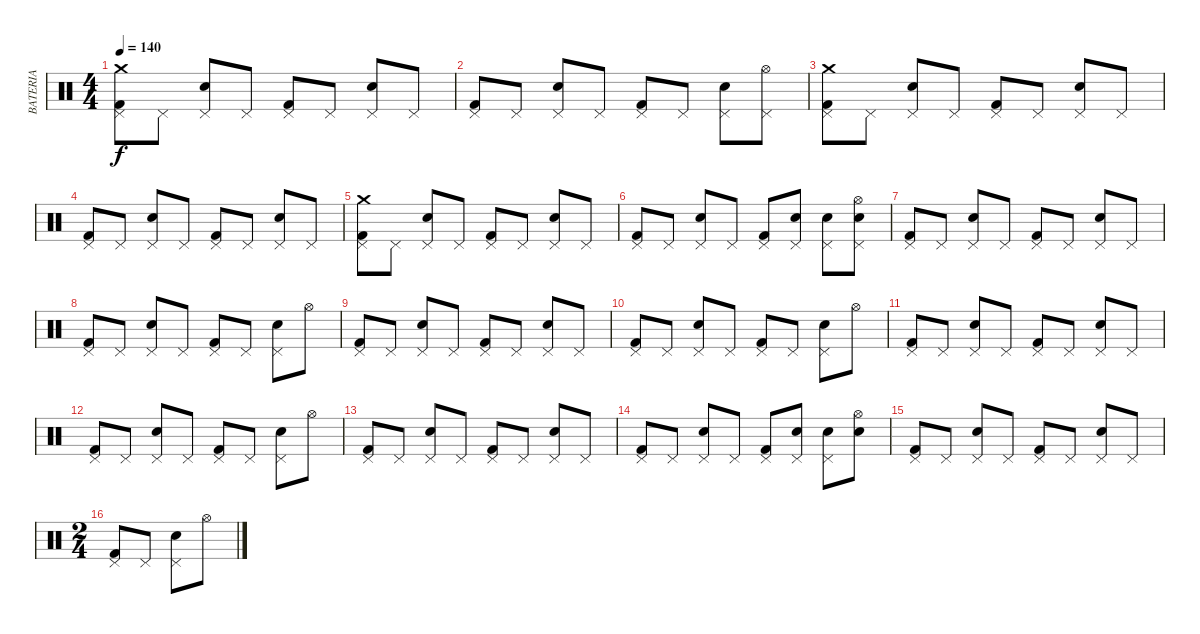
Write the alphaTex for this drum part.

\track ("BATERIA" "BATERIA") {instrument percussion}
\staff {score}
\articulation defaults
\ts (4 4)
\tempo 140
\clef neutral
\ks c
("Kick (hit) 2" "Pedal Hi-Hat (hit)" "Crash medium (hit)").8{dy f} "Pedal Hi-Hat (hit)".8 ("Snare (hit) 2" "Pedal Hi-Hat (hit)").8 "Pedal Hi-Hat (hit)".8 ("Kick (hit) 2" "Pedal Hi-Hat (hit)").8 "Pedal Hi-Hat (hit)".8 ("Snare (hit) 2" "Pedal Hi-Hat (hit)").8 "Pedal Hi-Hat (hit)".8 |
("Kick (hit) 2" "Pedal Hi-Hat (hit)").8 "Pedal Hi-Hat (hit)".8 ("Snare (hit) 2" "Pedal Hi-Hat (hit)").8 "Pedal Hi-Hat (hit)".8 ("Kick (hit) 2" "Pedal Hi-Hat (hit)").8 "Pedal Hi-Hat (hit)".8 ("Snare (hit) 2" "Pedal Hi-Hat (hit)").8 ("Pedal Hi-Hat (hit)" "Hi-Hat (open)").8 |
("Kick (hit) 2" "Pedal Hi-Hat (hit)" "Crash medium (hit)").8 "Pedal Hi-Hat (hit)".8 ("Snare (hit) 2" "Pedal Hi-Hat (hit)").8 "Pedal Hi-Hat (hit)".8 ("Kick (hit) 2" "Pedal Hi-Hat (hit)").8 "Pedal Hi-Hat (hit)".8 ("Snare (hit) 2" "Pedal Hi-Hat (hit)").8 "Pedal Hi-Hat (hit)".8 |
("Kick (hit) 2" "Pedal Hi-Hat (hit)").8 "Pedal Hi-Hat (hit)".8 ("Snare (hit) 2" "Pedal Hi-Hat (hit)").8 "Pedal Hi-Hat (hit)".8 ("Kick (hit) 2" "Pedal Hi-Hat (hit)").8 "Pedal Hi-Hat (hit)".8 ("Snare (hit) 2" "Pedal Hi-Hat (hit)").8 "Pedal Hi-Hat (hit)".8 |
("Kick (hit) 2" "Pedal Hi-Hat (hit)" "Crash medium (hit)").8 "Pedal Hi-Hat (hit)".8 ("Snare (hit) 2" "Pedal Hi-Hat (hit)").8 "Pedal Hi-Hat (hit)".8 ("Kick (hit) 2" "Pedal Hi-Hat (hit)").8 "Pedal Hi-Hat (hit)".8 ("Snare (hit) 2" "Pedal Hi-Hat (hit)").8 "Pedal Hi-Hat (hit)".8 |
("Kick (hit) 2" "Pedal Hi-Hat (hit)").8 "Pedal Hi-Hat (hit)".8 ("Snare (hit) 2" "Pedal Hi-Hat (hit)").8 "Pedal Hi-Hat (hit)".8 ("Kick (hit) 2" "Pedal Hi-Hat (hit)").8 ("Snare (hit) 2" "Pedal Hi-Hat (hit)").8 ("Snare (hit) 2" "Pedal Hi-Hat (hit)").8 ("Snare (hit) 2" "Pedal Hi-Hat (hit)" "Hi-Hat (open)").8 |
("Kick (hit) 2" "Pedal Hi-Hat (hit)").8 "Pedal Hi-Hat (hit)".8 ("Snare (hit) 2" "Pedal Hi-Hat (hit)").8 "Pedal Hi-Hat (hit)".8 ("Kick (hit) 2" "Pedal Hi-Hat (hit)").8 "Pedal Hi-Hat (hit)".8 ("Snare (hit) 2" "Pedal Hi-Hat (hit)").8 "Pedal Hi-Hat (hit)".8 |
("Kick (hit) 2" "Pedal Hi-Hat (hit)").8 "Pedal Hi-Hat (hit)".8 ("Snare (hit) 2" "Pedal Hi-Hat (hit)").8 "Pedal Hi-Hat (hit)".8 ("Kick (hit) 2" "Pedal Hi-Hat (hit)").8 "Pedal Hi-Hat (hit)".8 ("Snare (hit) 2" "Pedal Hi-Hat (hit)").8 "Hi-Hat (open)".8 |
("Kick (hit) 2" "Pedal Hi-Hat (hit)").8 "Pedal Hi-Hat (hit)".8 ("Snare (hit) 2" "Pedal Hi-Hat (hit)").8 "Pedal Hi-Hat (hit)".8 ("Kick (hit) 2" "Pedal Hi-Hat (hit)").8 "Pedal Hi-Hat (hit)".8 ("Snare (hit) 2" "Pedal Hi-Hat (hit)").8 "Pedal Hi-Hat (hit)".8 |
("Kick (hit) 2" "Pedal Hi-Hat (hit)").8 "Pedal Hi-Hat (hit)".8 ("Snare (hit) 2" "Pedal Hi-Hat (hit)").8 "Pedal Hi-Hat (hit)".8 ("Kick (hit) 2" "Pedal Hi-Hat (hit)").8 "Pedal Hi-Hat (hit)".8 ("Snare (hit) 2" "Pedal Hi-Hat (hit)").8 "Hi-Hat (open)".8 |
("Kick (hit) 2" "Pedal Hi-Hat (hit)").8 "Pedal Hi-Hat (hit)".8 ("Snare (hit) 2" "Pedal Hi-Hat (hit)").8 "Pedal Hi-Hat (hit)".8 ("Kick (hit) 2" "Pedal Hi-Hat (hit)").8 "Pedal Hi-Hat (hit)".8 ("Snare (hit) 2" "Pedal Hi-Hat (hit)").8 "Pedal Hi-Hat (hit)".8 |
("Kick (hit) 2" "Pedal Hi-Hat (hit)").8 "Pedal Hi-Hat (hit)".8 ("Snare (hit) 2" "Pedal Hi-Hat (hit)").8 "Pedal Hi-Hat (hit)".8 ("Kick (hit) 2" "Pedal Hi-Hat (hit)").8 "Pedal Hi-Hat (hit)".8 ("Snare (hit) 2" "Pedal Hi-Hat (hit)").8 "Hi-Hat (open)".8 |
("Kick (hit) 2" "Pedal Hi-Hat (hit)").8 "Pedal Hi-Hat (hit)".8 ("Snare (hit) 2" "Pedal Hi-Hat (hit)").8 "Pedal Hi-Hat (hit)".8 ("Kick (hit) 2" "Pedal Hi-Hat (hit)").8 "Pedal Hi-Hat (hit)".8 ("Snare (hit) 2" "Pedal Hi-Hat (hit)").8 "Pedal Hi-Hat (hit)".8 |
("Kick (hit) 2" "Pedal Hi-Hat (hit)").8 "Pedal Hi-Hat (hit)".8 ("Snare (hit) 2" "Pedal Hi-Hat (hit)").8 "Pedal Hi-Hat (hit)".8 ("Kick (hit) 2" "Pedal Hi-Hat (hit)").8 ("Snare (hit) 2" "Pedal Hi-Hat (hit)").8 ("Snare (hit) 2" "Pedal Hi-Hat (hit)").8 ("Snare (hit) 2" "Hi-Hat (open)").8 |
("Kick (hit) 2" "Pedal Hi-Hat (hit)").8 "Pedal Hi-Hat (hit)".8 ("Snare (hit) 2" "Pedal Hi-Hat (hit)").8 "Pedal Hi-Hat (hit)".8 ("Kick (hit) 2" "Pedal Hi-Hat (hit)").8 "Pedal Hi-Hat (hit)".8 ("Snare (hit) 2" "Pedal Hi-Hat (hit)").8 "Pedal Hi-Hat (hit)".8 |
\ts (2 4)
("Kick (hit) 2" "Pedal Hi-Hat (hit)").8 "Pedal Hi-Hat (hit)".8 ("Snare (hit) 2" "Pedal Hi-Hat (hit)").8 "Hi-Hat (open)".8
